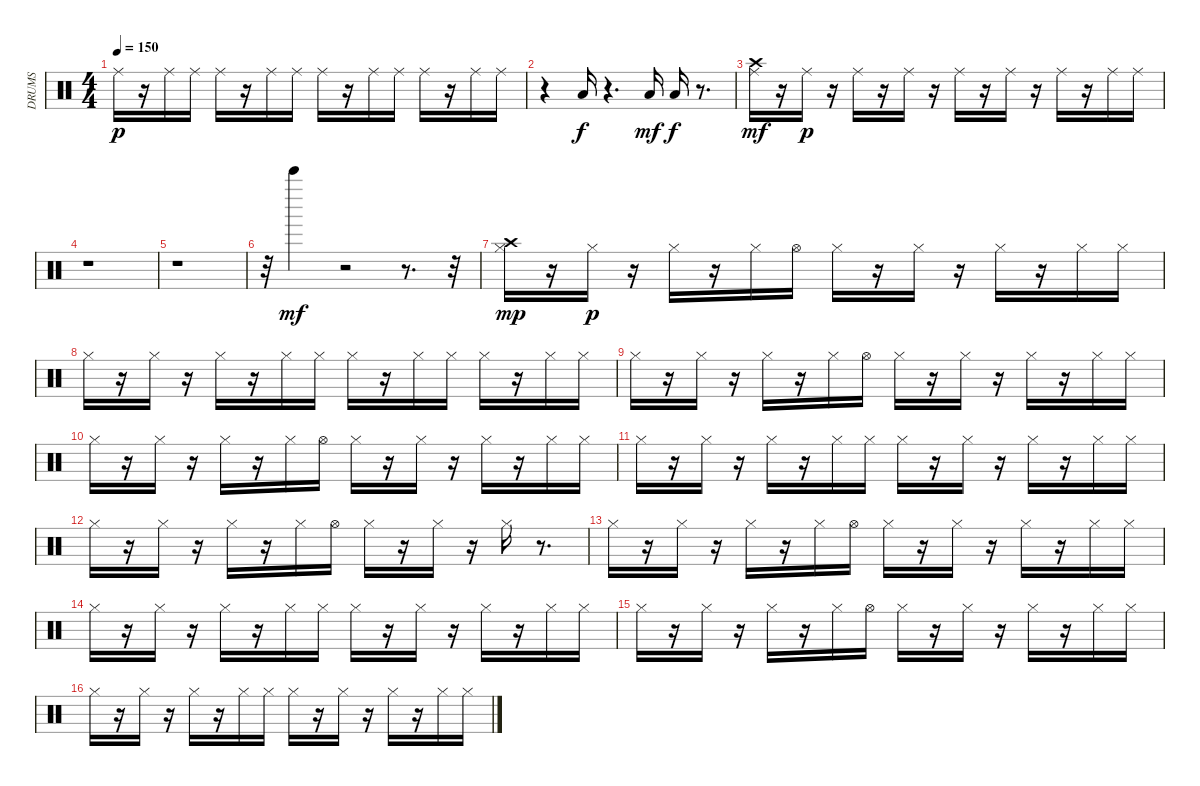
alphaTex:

\track ("DRUMS" "DRUMS") {instrument percussion}
\staff {score}
\articulation defaults
\ts (4 4)
\tempo 150
\clef neutral
\ks c "Ride (middle)".16{dy p}
r.16 "Ride (middle)".16 "Ride (middle)".16 "Ride (middle)".16 r.16 "Ride (middle)".16 "Ride (middle)".16 "Ride (middle)".16 r.16 "Ride (middle)".16 "Ride (middle)".16 "Ride (middle)".16 r.16 "Ride (middle)".16 "Ride (middle)".16 |
r.4 "Low Floor Tom (hit)".16{dy f} r.4{d} "Low Floor Tom (hit)".16{dy mf} "Low Floor Tom (hit)".16{dy f} r.8{d} |
("Ride (middle)" "Crash high (hit)").16{dy mf} r.16 "Ride (middle)".16{dy p} r.16 "Ride (middle)".16 r.16 "Ride (middle)".16 r.16 "Ride (middle)".16 r.16 "Ride (middle)".16 r.16 "Ride (middle)".16 r.16 "Ride (middle)".16 "Ride (middle)".16 |
r.1 |
r.1 |
r.32 "Bell Tree (hit)".4{dy mf} r.2 r.8{d} r.32 |
("Hi-Hat (closed)" "Crash high (hit)").16{dy mp} r.16 "Hi-Hat (closed)".16{dy p} r.16 "Hi-Hat (closed)".16 r.16 "Hi-Hat (closed)".16 "Hi-Hat (open)".16 "Hi-Hat (closed)".16 r.16 "Hi-Hat (closed)".16 r.16 "Hi-Hat (closed)".16 r.16 "Hi-Hat (closed)".16 "Hi-Hat (closed)".16 |
"Hi-Hat (closed)".16 r.16 "Hi-Hat (closed)".16 r.16 "Hi-Hat (closed)".16 r.16 "Hi-Hat (closed)".16 "Hi-Hat (closed)".16 "Hi-Hat (closed)".16 r.16 "Hi-Hat (closed)".16 "Hi-Hat (closed)".16 "Hi-Hat (closed)".16 r.16 "Hi-Hat (closed)".16 "Hi-Hat (closed)".16 |
"Hi-Hat (closed)".16 r.16 "Hi-Hat (closed)".16 r.16 "Hi-Hat (closed)".16 r.16 "Hi-Hat (closed)".16 "Hi-Hat (open)".16 "Hi-Hat (closed)".16 r.16 "Hi-Hat (closed)".16 r.16 "Hi-Hat (closed)".16 r.16 "Hi-Hat (closed)".16 "Hi-Hat (closed)".16 |
"Hi-Hat (closed)".16 r.16 "Hi-Hat (closed)".16 r.16 "Hi-Hat (closed)".16 r.16 "Hi-Hat (closed)".16 "Hi-Hat (open)".16 "Hi-Hat (closed)".16 r.16 "Hi-Hat (closed)".16 r.16 "Hi-Hat (closed)".16 r.16 "Hi-Hat (closed)".16 "Hi-Hat (closed)".16 |
"Hi-Hat (closed)".16 r.16 "Hi-Hat (closed)".16 r.16 "Hi-Hat (closed)".16 r.16 "Hi-Hat (closed)".16 "Hi-Hat (closed)".16 "Hi-Hat (closed)".16 r.16 "Hi-Hat (closed)".16 r.16 "Hi-Hat (closed)".16 r.16 "Hi-Hat (closed)".16 "Hi-Hat (closed)".16 |
"Hi-Hat (closed)".16 r.16 "Hi-Hat (closed)".16 r.16 "Hi-Hat (closed)".16 r.16 "Hi-Hat (closed)".16 "Hi-Hat (open)".16 "Hi-Hat (closed)".16 r.16 "Hi-Hat (closed)".16 r.16 "Hi-Hat (closed)".16 r.8{d} |
"Hi-Hat (closed)".16 r.16 "Hi-Hat (closed)".16 r.16 "Hi-Hat (closed)".16 r.16 "Hi-Hat (closed)".16 "Hi-Hat (open)".16 "Hi-Hat (closed)".16 r.16 "Hi-Hat (closed)".16 r.16 "Hi-Hat (closed)".16 r.16 "Hi-Hat (closed)".16 "Hi-Hat (closed)".16 |
"Hi-Hat (closed)".16 r.16 "Hi-Hat (closed)".16 r.16 "Hi-Hat (closed)".16 r.16 "Hi-Hat (closed)".16 "Hi-Hat (closed)".16 "Hi-Hat (closed)".16 r.16 "Hi-Hat (closed)".16 r.16 "Hi-Hat (closed)".16 r.16 "Hi-Hat (closed)".16 "Hi-Hat (closed)".16 |
"Hi-Hat (closed)".16 r.16 "Hi-Hat (closed)".16 r.16 "Hi-Hat (closed)".16 r.16 "Hi-Hat (closed)".16 "Hi-Hat (open)".16 "Hi-Hat (closed)".16 r.16 "Hi-Hat (closed)".16 r.16 "Hi-Hat (closed)".16 r.16 "Hi-Hat (closed)".16 "Hi-Hat (closed)".16 |
"Hi-Hat (closed)".16 r.16 "Hi-Hat (closed)".16 r.16 "Hi-Hat (closed)".16 r.16 "Hi-Hat (closed)".16 "Hi-Hat (closed)".16 "Hi-Hat (closed)".16 r.16 "Hi-Hat (closed)".16 r.16 "Hi-Hat (closed)".16 r.16 "Hi-Hat (closed)".16 "Hi-Hat (closed)".16
